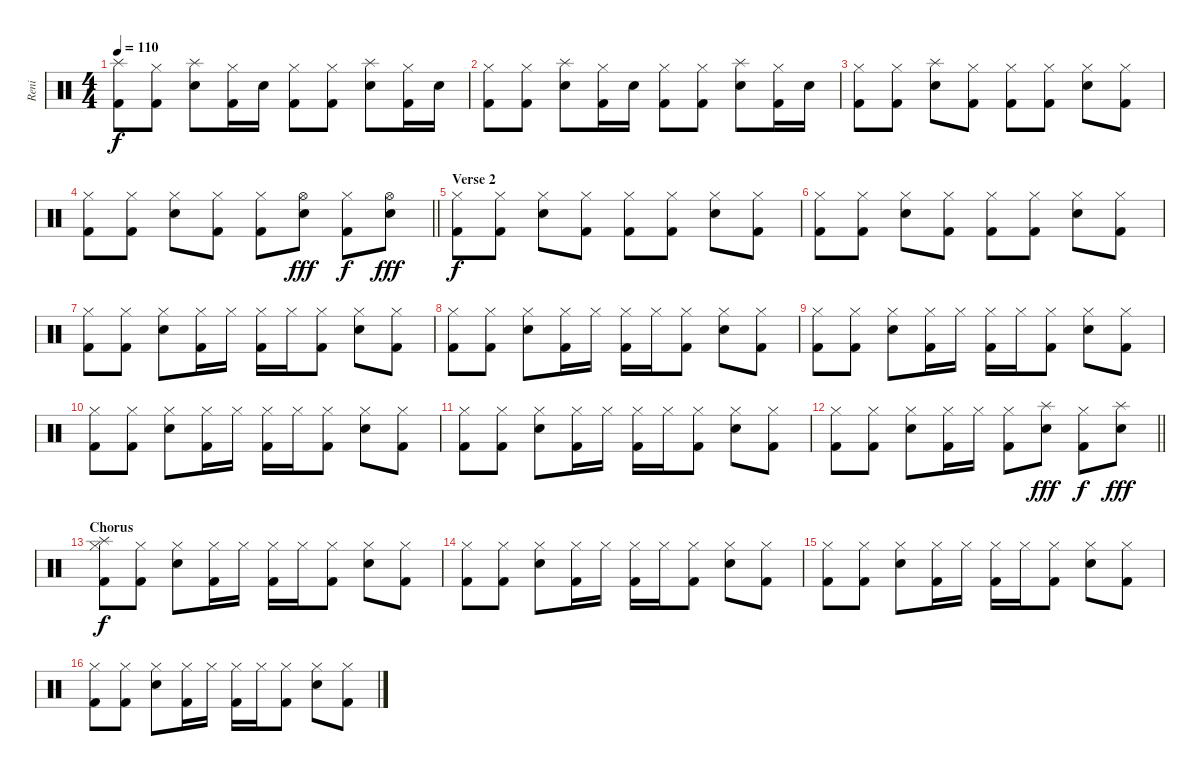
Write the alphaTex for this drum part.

\track ("Reni" "Reni") {instrument percussion}
\staff {score}
\articulation defaults
\ts (4 4)
\tempo 110
\clef neutral
\ks c
("Splash (hit)" "Kick (hit) 2").8{dy f} ("Hi-Hat (closed)" "Kick (hit) 2").8 ("Splash (hit)" "Electric Snare (hit)").8 ("Hi-Hat (closed)" "Kick (hit) 2").16 "Electric Snare (hit)".16 ("Hi-Hat (closed)" "Kick (hit) 2").8 ("Hi-Hat (closed)" "Kick (hit) 2").8 ("Splash (hit)" "Electric Snare (hit)").8 ("Hi-Hat (closed)" "Kick (hit) 2").16 "Electric Snare (hit)".16 |
("Hi-Hat (closed)" "Kick (hit) 2").8 ("Hi-Hat (closed)" "Kick (hit) 2").8 ("Splash (hit)" "Electric Snare (hit)").8 ("Hi-Hat (closed)" "Kick (hit) 2").16 "Electric Snare (hit)".16 ("Hi-Hat (closed)" "Kick (hit) 2").8 ("Hi-Hat (closed)" "Kick (hit) 2").8 ("Splash (hit)" "Electric Snare (hit)").8 ("Hi-Hat (closed)" "Kick (hit) 2").16 "Electric Snare (hit)".16 |
("Hi-Hat (closed)" "Kick (hit) 2").8 ("Hi-Hat (closed)" "Kick (hit) 2").8 ("Splash (hit)" "Electric Snare (hit)").8 ("Hi-Hat (closed)" "Kick (hit) 2").8 ("Hi-Hat (closed)" "Kick (hit) 2").8 ("Hi-Hat (closed)" "Kick (hit) 2").8 ("Hi-Hat (closed)" "Electric Snare (hit)").8 ("Hi-Hat (closed)" "Kick (hit) 2").8 |
\barLineRight lightlight
("Hi-Hat (closed)" "Kick (hit) 2").8 ("Hi-Hat (closed)" "Kick (hit) 2").8 ("Hi-Hat (closed)" "Electric Snare (hit)").8 ("Hi-Hat (closed)" "Kick (hit) 2").8 ("Hi-Hat (closed)" "Kick (hit) 2").8 ("Hi-Hat (open)" "Electric Snare (hit)").8{dy fff} ("Hi-Hat (closed)" "Kick (hit) 2").8{dy f} ("Hi-Hat (open)" "Electric Snare (hit)").8{dy fff} |
\section ("" "Verse 2")
("Hi-Hat (closed)" "Kick (hit) 2").8{dy f} ("Hi-Hat (closed)" "Kick (hit) 2").8 ("Hi-Hat (closed)" "Electric Snare (hit)").8 ("Hi-Hat (closed)" "Kick (hit) 2").8 ("Hi-Hat (closed)" "Kick (hit) 2").8 ("Hi-Hat (closed)" "Kick (hit) 2").8 ("Hi-Hat (closed)" "Electric Snare (hit)").8 ("Hi-Hat (closed)" "Kick (hit) 2").8 |
("Hi-Hat (closed)" "Kick (hit) 2").8 ("Hi-Hat (closed)" "Kick (hit) 2").8 ("Hi-Hat (closed)" "Electric Snare (hit)").8 ("Hi-Hat (closed)" "Kick (hit) 2").8 ("Hi-Hat (closed)" "Kick (hit) 2").8 ("Hi-Hat (closed)" "Kick (hit) 2").8 ("Hi-Hat (closed)" "Electric Snare (hit)").8 ("Hi-Hat (closed)" "Kick (hit) 2").8 |
("Hi-Hat (closed)" "Kick (hit) 2").8 ("Hi-Hat (closed)" "Kick (hit) 2").8 ("Hi-Hat (closed)" "Electric Snare (hit)").8 ("Hi-Hat (closed)" "Kick (hit) 2").16 "Hi-Hat (closed)".16 ("Hi-Hat (closed)" "Kick (hit) 2").16 "Hi-Hat (closed)".16 ("Hi-Hat (closed)" "Kick (hit) 2").8 ("Hi-Hat (closed)" "Electric Snare (hit)").8 ("Hi-Hat (closed)" "Kick (hit) 2").8 |
("Hi-Hat (closed)" "Kick (hit) 2").8 ("Hi-Hat (closed)" "Kick (hit) 2").8 ("Hi-Hat (closed)" "Electric Snare (hit)").8 ("Hi-Hat (closed)" "Kick (hit) 2").16 "Hi-Hat (closed)".16 ("Hi-Hat (closed)" "Kick (hit) 2").16 "Hi-Hat (closed)".16 ("Hi-Hat (closed)" "Kick (hit) 2").8 ("Hi-Hat (closed)" "Electric Snare (hit)").8 ("Hi-Hat (closed)" "Kick (hit) 2").8 |
("Hi-Hat (closed)" "Kick (hit) 2").8 ("Hi-Hat (closed)" "Kick (hit) 2").8 ("Hi-Hat (closed)" "Electric Snare (hit)").8 ("Hi-Hat (closed)" "Kick (hit) 2").16 "Hi-Hat (closed)".16 ("Hi-Hat (closed)" "Kick (hit) 2").16 "Hi-Hat (closed)".16 ("Hi-Hat (closed)" "Kick (hit) 2").8 ("Hi-Hat (closed)" "Electric Snare (hit)").8 ("Hi-Hat (closed)" "Kick (hit) 2").8 |
("Hi-Hat (closed)" "Kick (hit) 2").8 ("Hi-Hat (closed)" "Kick (hit) 2").8 ("Hi-Hat (closed)" "Electric Snare (hit)").8 ("Hi-Hat (closed)" "Kick (hit) 2").16 "Hi-Hat (closed)".16 ("Hi-Hat (closed)" "Kick (hit) 2").16 "Hi-Hat (closed)".16 ("Hi-Hat (closed)" "Kick (hit) 2").8 ("Hi-Hat (closed)" "Electric Snare (hit)").8 ("Hi-Hat (closed)" "Kick (hit) 2").8 |
("Hi-Hat (closed)" "Kick (hit) 2").8 ("Hi-Hat (closed)" "Kick (hit) 2").8 ("Hi-Hat (closed)" "Electric Snare (hit)").8 ("Hi-Hat (closed)" "Kick (hit) 2").16 "Hi-Hat (closed)".16 ("Hi-Hat (closed)" "Kick (hit) 2").16 "Hi-Hat (closed)".16 ("Hi-Hat (closed)" "Kick (hit) 2").8 ("Hi-Hat (closed)" "Electric Snare (hit)").8 ("Hi-Hat (closed)" "Kick (hit) 2").8 |
\barLineRight lightlight
("Hi-Hat (closed)" "Kick (hit) 2").8 ("Hi-Hat (closed)" "Kick (hit) 2").8 ("Hi-Hat (closed)" "Electric Snare (hit)").8 ("Hi-Hat (closed)" "Kick (hit) 2").16 "Hi-Hat (closed)".16 ("Hi-Hat (closed)" "Kick (hit) 2").8 ("Splash (hit)" "Electric Snare (hit)").8{dy fff} ("Hi-Hat (closed)" "Kick (hit) 2").8{dy f} ("Splash (hit)" "Electric Snare (hit)").8{dy fff} |
\section ("" "Chorus")
("Splash (hit)" "Hi-Hat (closed)" "Kick (hit) 2").8{dy f} ("Hi-Hat (closed)" "Kick (hit) 2").8 ("Hi-Hat (closed)" "Electric Snare (hit)").8 ("Hi-Hat (closed)" "Kick (hit) 2").16 "Hi-Hat (closed)".16 ("Hi-Hat (closed)" "Kick (hit) 2").16 "Hi-Hat (closed)".16 ("Hi-Hat (closed)" "Kick (hit) 2").8 ("Hi-Hat (closed)" "Electric Snare (hit)").8 ("Hi-Hat (closed)" "Kick (hit) 2").8 |
("Hi-Hat (closed)" "Kick (hit) 2").8 ("Hi-Hat (closed)" "Kick (hit) 2").8 ("Hi-Hat (closed)" "Electric Snare (hit)").8 ("Hi-Hat (closed)" "Kick (hit) 2").16 "Hi-Hat (closed)".16 ("Hi-Hat (closed)" "Kick (hit) 2").16 "Hi-Hat (closed)".16 ("Hi-Hat (closed)" "Kick (hit) 2").8 ("Hi-Hat (closed)" "Electric Snare (hit)").8 ("Hi-Hat (closed)" "Kick (hit) 2").8 |
("Hi-Hat (closed)" "Kick (hit) 2").8 ("Hi-Hat (closed)" "Kick (hit) 2").8 ("Hi-Hat (closed)" "Electric Snare (hit)").8 ("Hi-Hat (closed)" "Kick (hit) 2").16 "Hi-Hat (closed)".16 ("Hi-Hat (closed)" "Kick (hit) 2").16 "Hi-Hat (closed)".16 ("Hi-Hat (closed)" "Kick (hit) 2").8 ("Hi-Hat (closed)" "Electric Snare (hit)").8 ("Hi-Hat (closed)" "Kick (hit) 2").8 |
("Hi-Hat (closed)" "Kick (hit) 2").8 ("Hi-Hat (closed)" "Kick (hit) 2").8 ("Hi-Hat (closed)" "Electric Snare (hit)").8 ("Hi-Hat (closed)" "Kick (hit) 2").16 "Hi-Hat (closed)".16 ("Hi-Hat (closed)" "Kick (hit) 2").16 "Hi-Hat (closed)".16 ("Hi-Hat (closed)" "Kick (hit) 2").8 ("Hi-Hat (closed)" "Electric Snare (hit)").8 ("Hi-Hat (closed)" "Kick (hit) 2").8
